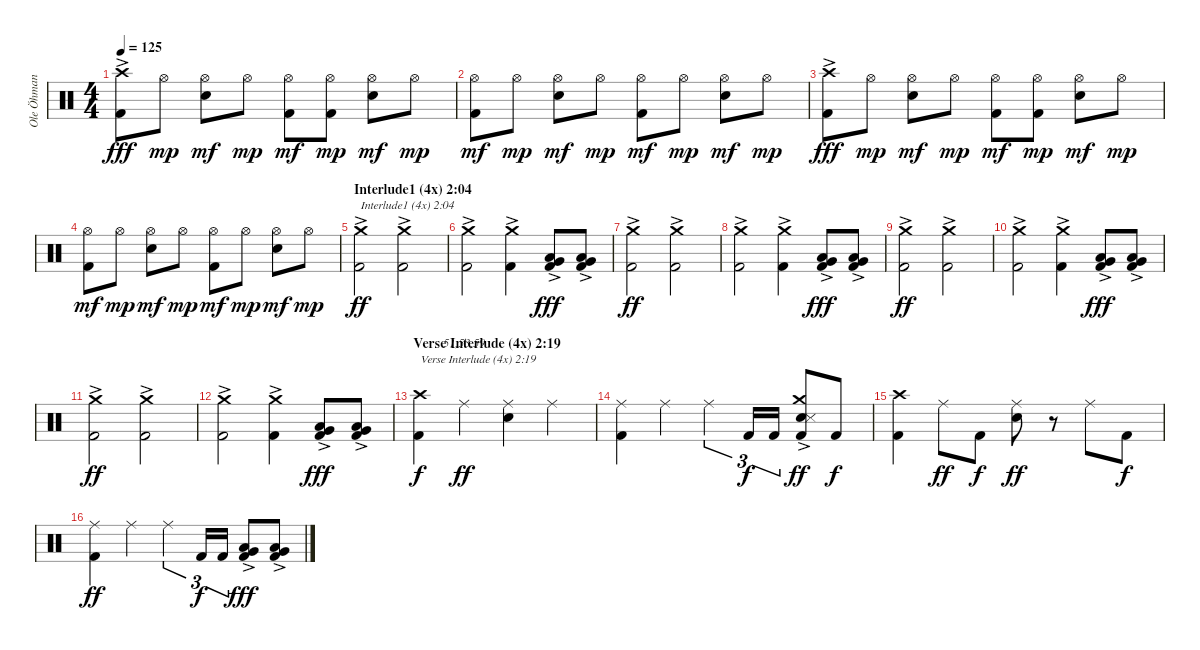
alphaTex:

\track ("Ole Öhman" "Ole Öhman") {instrument percussion}
\staff {score}
\articulation defaults
\chord ("51,53,59")
\ts (4 4)
\tempo 125
\clef neutral
\ks c
("Kick (hit) 2" "Crash high (hit)"{ac}).8{dy fff} "Hi-Hat (open)".8{dy mp} ("Electric Snare (hit)" "Hi-Hat (open)").8{dy mf} "Hi-Hat (open)".8{dy mp} ("Kick (hit) 2" "Hi-Hat (open)").8{dy mf} ("Kick (hit) 2" "Hi-Hat (open)").8{dy mp} ("Electric Snare (hit)" "Hi-Hat (open)").8{dy mf} "Hi-Hat (open)".8{dy mp} |
("Kick (hit) 2" "Hi-Hat (open)").8{dy mf} "Hi-Hat (open)".8{dy mp} ("Electric Snare (hit)" "Hi-Hat (open)").8{dy mf} "Hi-Hat (open)".8{dy mp} ("Kick (hit) 2" "Hi-Hat (open)").8{dy mf} "Hi-Hat (open)".8{dy mp} ("Electric Snare (hit)" "Hi-Hat (open)").8{dy mf} "Hi-Hat (open)".8{dy mp} |
("Kick (hit) 2" "Crash high (hit)"{ac}).8{dy fff} "Hi-Hat (open)".8{dy mp} ("Electric Snare (hit)" "Hi-Hat (open)").8{dy mf} "Hi-Hat (open)".8{dy mp} ("Kick (hit) 2" "Hi-Hat (open)").8{dy mf} ("Kick (hit) 2" "Hi-Hat (open)").8{dy mp} ("Electric Snare (hit)" "Hi-Hat (open)").8{dy mf} "Hi-Hat (open)".8{dy mp} |
("Kick (hit) 2" "Hi-Hat (open)").8{dy mf} "Hi-Hat (open)".8{dy mp} ("Electric Snare (hit)" "Hi-Hat (open)").8{dy mf} "Hi-Hat (open)".8{dy mp} ("Kick (hit) 2" "Hi-Hat (open)").8{dy mf} "Hi-Hat (open)".8{dy mp} ("Electric Snare (hit)" "Hi-Hat (open)").8{dy mf} "Hi-Hat (open)".8{dy mp} |
\section ("" "Interlude1 (4x) 2:04")
("Kick (hit) 2"{ac} "Crash medium (hit)"{ac}).2{txt "Interlude1 (4x) 2:04" dy ff} ("Kick (hit) 2"{ac} "Crash medium (hit)"{ac}).2 |
("Kick (hit) 2"{ac} "Crash medium (hit)"{ac}).2 ("Kick (hit) 2"{ac} "Crash medium (hit)"{ac}).4 ("Kick (hit) 2" "Low Tom (hit)"{ac} "Very Low Tom (hit)"{ac}).8{dy fff} ("Kick (hit) 2" "Low Tom (hit)"{ac} "Very Low Tom (hit)"{ac}).8 |
("Kick (hit) 2"{ac} "Crash medium (hit)"{ac}).2{dy ff} ("Kick (hit) 2"{ac} "Crash medium (hit)"{ac}).2 |
("Kick (hit) 2"{ac} "Crash medium (hit)"{ac}).2 ("Kick (hit) 2"{ac} "Crash medium (hit)"{ac}).4 ("Kick (hit) 2" "Low Tom (hit)"{ac} "Very Low Tom (hit)"{ac}).8{dy fff} ("Kick (hit) 2" "Low Tom (hit)"{ac} "Very Low Tom (hit)"{ac}).8 |
("Kick (hit) 2"{ac} "Crash medium (hit)"{ac}).2{dy ff} ("Kick (hit) 2"{ac} "Crash medium (hit)"{ac}).2 |
("Kick (hit) 2"{ac} "Crash medium (hit)"{ac}).2 ("Kick (hit) 2"{ac} "Crash medium (hit)"{ac}).4 ("Kick (hit) 2" "Low Tom (hit)"{ac} "Very Low Tom (hit)"{ac}).8{dy fff} ("Kick (hit) 2" "Low Tom (hit)"{ac} "Very Low Tom (hit)"{ac}).8 |
("Kick (hit) 2"{ac} "Crash medium (hit)"{ac}).2{dy ff} ("Kick (hit) 2"{ac} "Crash medium (hit)"{ac}).2 |
("Kick (hit) 2"{ac} "Crash medium (hit)"{ac}).2 ("Kick (hit) 2"{ac} "Crash medium (hit)"{ac}).4 ("Kick (hit) 2" "Low Tom (hit)"{ac} "Very Low Tom (hit)"{ac}).8{dy fff} ("Kick (hit) 2" "Low Tom (hit)"{ac} "Very Low Tom (hit)"{ac}).8 |
\section ("" "Verse Interlude (4x) 2:19")
("Kick (hit) 2" "Crash high (hit)").4{txt "Verse Interlude (4x) 2:19" dy f} "Ride (middle)".4{ch "51,53,59" dy ff} ("Electric Snare (hit)" "Ride (middle)").4 "Ride (middle)".4 |
("Kick (hit) 2" "Ride (middle)").4 "Ride (middle)".4 "Ride (middle)".4{tu (3 2)} "Kick (hit) 2".16{tu (3 2) dy f} "Kick (hit) 2".16{tu (3 2)} ("Kick (hit) 2" "Electric Snare (hit)"{ac} "Snare (side stick) 3" "Crash medium (hit)").8{dy ff} "Kick (hit) 2".8{dy f} |
("Kick (hit) 2" "Crash high (hit)").4 "Ride (middle)".8{dy ff} "Kick (hit) 2".8{dy f} ("Electric Snare (hit)" "Ride (middle)").8{dy ff} r.8 "Ride (middle)".8 "Kick (hit) 2".8{dy f} |
("Kick (hit) 2" "Ride (middle)").4{dy ff} "Ride (middle)".4 "Ride (middle)".4{tu (3 2)} "Kick (hit) 2".16{tu (3 2) dy f} "Kick (hit) 2".16{tu (3 2)} ("Kick (hit) 2" "Low Tom (hit)"{ac} "Very Low Tom (hit)"{ac}).8{dy fff} ("Kick (hit) 2" "Low Tom (hit)"{ac} "Very Low Tom (hit)"{ac}).8
